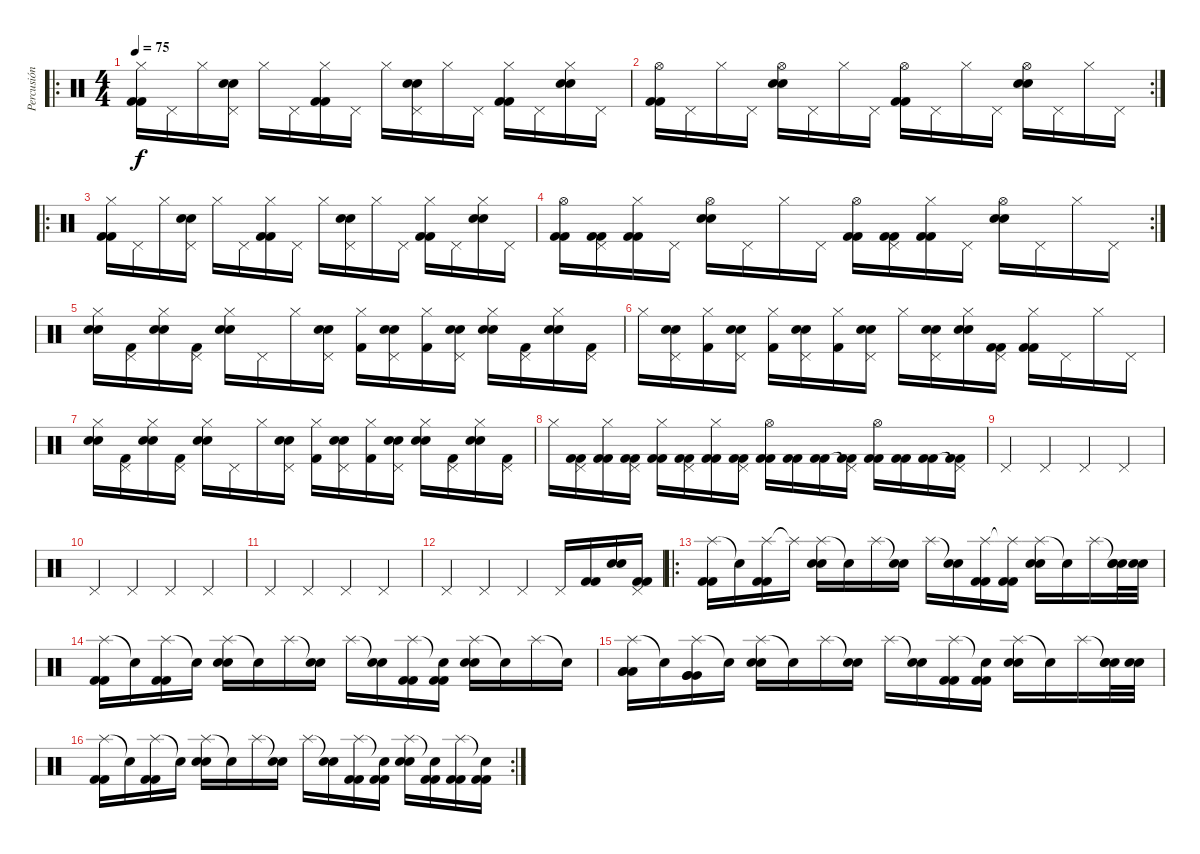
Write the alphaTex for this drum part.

\track ("Percusión" "Percusión") {instrument percussion}
\staff {score}
\articulation defaults
\ro
\ts (4 4)
\tempo 75
\clef neutral
\ks c
("Hi-Hat (closed)" "Kick (hit) 2" "Kick (hit) 2").16{dy f} "Pedal Hi-Hat (hit)".16 "Hi-Hat (closed)".16 ("Pedal Hi-Hat (hit)" "Electric Snare (hit)" "Electric Snare (hit)").16 "Hi-Hat (closed)".16 "Pedal Hi-Hat (hit)".16 ("Hi-Hat (closed)" "Kick (hit) 2" "Kick (hit) 2").16 "Pedal Hi-Hat (hit)".16 "Hi-Hat (closed)".16 ("Pedal Hi-Hat (hit)" "Electric Snare (hit)" "Electric Snare (hit)").16 "Hi-Hat (closed)".16 "Pedal Hi-Hat (hit)".16 ("Hi-Hat (closed)" "Kick (hit) 2" "Kick (hit) 2").16 "Pedal Hi-Hat (hit)".16 ("Hi-Hat (closed)" "Electric Snare (hit)" "Electric Snare (hit)").16 "Pedal Hi-Hat (hit)".16 |
\rc 2
("Hi-Hat (open)" "Kick (hit) 2" "Kick (hit) 2").16 "Pedal Hi-Hat (hit)".16 "Hi-Hat (closed)".16 "Pedal Hi-Hat (hit)".16 ("Hi-Hat (open)" "Electric Snare (hit)" "Electric Snare (hit)").16 "Pedal Hi-Hat (hit)".16 "Hi-Hat (closed)".16 "Pedal Hi-Hat (hit)".16 ("Hi-Hat (open)" "Kick (hit) 2" "Kick (hit) 2").16 "Pedal Hi-Hat (hit)".16 "Hi-Hat (closed)".16 "Pedal Hi-Hat (hit)".16 ("Hi-Hat (open)" "Electric Snare (hit)" "Electric Snare (hit)").16 "Pedal Hi-Hat (hit)".16 "Hi-Hat (closed)".16 "Pedal Hi-Hat (hit)".16 |
\ro
("Hi-Hat (closed)" "Kick (hit) 2" "Kick (hit) 2").16 "Pedal Hi-Hat (hit)".16 "Hi-Hat (closed)".16 ("Pedal Hi-Hat (hit)" "Electric Snare (hit)" "Electric Snare (hit)").16 "Hi-Hat (closed)".16 "Pedal Hi-Hat (hit)".16 ("Hi-Hat (closed)" "Kick (hit) 2" "Kick (hit) 2").16 "Pedal Hi-Hat (hit)".16 "Hi-Hat (closed)".16 ("Pedal Hi-Hat (hit)" "Electric Snare (hit)" "Electric Snare (hit)").16 "Hi-Hat (closed)".16 "Pedal Hi-Hat (hit)".16 ("Hi-Hat (closed)" "Kick (hit) 2" "Kick (hit) 2").16 "Pedal Hi-Hat (hit)".16 ("Hi-Hat (closed)" "Electric Snare (hit)" "Electric Snare (hit)").16 "Pedal Hi-Hat (hit)".16 |
\rc 2
("Hi-Hat (open)" "Kick (hit) 2" "Kick (hit) 2").16 ("Pedal Hi-Hat (hit)" "Kick (hit) 2" "Kick (hit) 2").16 ("Hi-Hat (closed)" "Kick (hit) 2" "Kick (hit) 2").16 "Pedal Hi-Hat (hit)".16 ("Hi-Hat (open)" "Electric Snare (hit)" "Electric Snare (hit)").16 "Pedal Hi-Hat (hit)".16 "Hi-Hat (closed)".16 "Pedal Hi-Hat (hit)".16 ("Hi-Hat (open)" "Kick (hit) 2" "Kick (hit) 2").16 ("Pedal Hi-Hat (hit)" "Kick (hit) 2" "Kick (hit) 2").16 ("Hi-Hat (closed)" "Kick (hit) 2" "Kick (hit) 2").16 "Pedal Hi-Hat (hit)".16 ("Hi-Hat (open)" "Electric Snare (hit)" "Electric Snare (hit)").16 "Pedal Hi-Hat (hit)".16 "Hi-Hat (closed)".16 "Pedal Hi-Hat (hit)".16 |
("Hi-Hat (closed)" "Electric Snare (hit)" "Electric Snare (hit)").16 ("Pedal Hi-Hat (hit)" "Kick (hit) 2").16 ("Hi-Hat (closed)" "Electric Snare (hit)" "Electric Snare (hit)").16 ("Pedal Hi-Hat (hit)" "Kick (hit) 2").16 ("Hi-Hat (closed)" "Electric Snare (hit)" "Electric Snare (hit)").16 "Pedal Hi-Hat (hit)".16 "Hi-Hat (closed)".16 ("Pedal Hi-Hat (hit)" "Electric Snare (hit)" "Electric Snare (hit)").16 ("Hi-Hat (closed)" "Kick (hit) 2").16 ("Pedal Hi-Hat (hit)" "Electric Snare (hit)" "Electric Snare (hit)").16 ("Hi-Hat (closed)" "Kick (hit) 2").16 ("Pedal Hi-Hat (hit)" "Electric Snare (hit)" "Electric Snare (hit)").16 ("Hi-Hat (closed)" "Electric Snare (hit)" "Electric Snare (hit)").16 ("Pedal Hi-Hat (hit)" "Kick (hit) 2").16 ("Hi-Hat (closed)" "Electric Snare (hit)" "Electric Snare (hit)").16 ("Pedal Hi-Hat (hit)" "Kick (hit) 2").16 |
"Hi-Hat (closed)".16 ("Pedal Hi-Hat (hit)" "Electric Snare (hit)" "Electric Snare (hit)").16 ("Hi-Hat (closed)" "Kick (hit) 2").16 ("Pedal Hi-Hat (hit)" "Electric Snare (hit)" "Electric Snare (hit)").16 ("Hi-Hat (closed)" "Kick (hit) 2").16 ("Pedal Hi-Hat (hit)" "Electric Snare (hit)" "Electric Snare (hit)").16 ("Hi-Hat (closed)" "Kick (hit) 2").16 ("Pedal Hi-Hat (hit)" "Electric Snare (hit)" "Electric Snare (hit)").16 "Hi-Hat (closed)".16 ("Pedal Hi-Hat (hit)" "Electric Snare (hit)" "Electric Snare (hit)").16 ("Hi-Hat (closed)" "Electric Snare (hit)" "Electric Snare (hit)").16 ("Pedal Hi-Hat (hit)" "Kick (hit) 2" "Kick (hit) 2").16 ("Hi-Hat (closed)" "Kick (hit) 2" "Kick (hit) 2").16 "Pedal Hi-Hat (hit)".16 "Hi-Hat (closed)".16 "Pedal Hi-Hat (hit)".16 |
("Hi-Hat (closed)" "Electric Snare (hit)" "Electric Snare (hit)").16 ("Pedal Hi-Hat (hit)" "Kick (hit) 2").16 ("Hi-Hat (closed)" "Electric Snare (hit)" "Electric Snare (hit)").16 ("Pedal Hi-Hat (hit)" "Kick (hit) 2").16 ("Hi-Hat (closed)" "Electric Snare (hit)" "Electric Snare (hit)").16 "Pedal Hi-Hat (hit)".16 "Hi-Hat (closed)".16 ("Pedal Hi-Hat (hit)" "Electric Snare (hit)" "Electric Snare (hit)").16 ("Hi-Hat (closed)" "Kick (hit) 2").16 ("Pedal Hi-Hat (hit)" "Electric Snare (hit)" "Electric Snare (hit)").16 ("Hi-Hat (closed)" "Kick (hit) 2").16 ("Pedal Hi-Hat (hit)" "Electric Snare (hit)" "Electric Snare (hit)").16 ("Hi-Hat (closed)" "Electric Snare (hit)" "Electric Snare (hit)").16 ("Pedal Hi-Hat (hit)" "Kick (hit) 2").16 ("Hi-Hat (closed)" "Electric Snare (hit)" "Electric Snare (hit)").16 ("Pedal Hi-Hat (hit)" "Kick (hit) 2").16 |
"Hi-Hat (closed)".16 ("Pedal Hi-Hat (hit)" "Kick (hit) 2" "Kick (hit) 2").16 ("Hi-Hat (closed)" "Kick (hit) 2" "Kick (hit) 2").16 ("Pedal Hi-Hat (hit)" "Kick (hit) 2" "Kick (hit) 2").16 ("Hi-Hat (closed)" "Kick (hit) 2" "Kick (hit) 2").16 ("Pedal Hi-Hat (hit)" "Kick (hit) 2" "Kick (hit) 2").16 ("Hi-Hat (closed)" "Kick (hit) 2" "Kick (hit) 2").16 ("Pedal Hi-Hat (hit)" "Kick (hit) 2" "Kick (hit) 2").16 ("Hi-Hat (open)" "Kick (hit) 2" "Kick (hit) 2").16 ("Kick (hit) 2" "Kick (hit) 2").16 ("Kick (hit) 2" "Kick (hit) 2").16 ("Pedal Hi-Hat (hit)"{t} "Kick (hit) 2" "Kick (hit) 2").16 ("Hi-Hat (open)" "Kick (hit) 2" "Kick (hit) 2").16 ("Kick (hit) 2" "Kick (hit) 2").16 ("Kick (hit) 2" "Kick (hit) 2").16 ("Pedal Hi-Hat (hit)"{t} "Kick (hit) 2" "Kick (hit) 2").16 |
"Pedal Hi-Hat (hit)".4 "Pedal Hi-Hat (hit)".4 "Pedal Hi-Hat (hit)".4 "Pedal Hi-Hat (hit)".4 |
"Pedal Hi-Hat (hit)".4 "Pedal Hi-Hat (hit)".4 "Pedal Hi-Hat (hit)".4 "Pedal Hi-Hat (hit)".4 |
"Pedal Hi-Hat (hit)".4 "Pedal Hi-Hat (hit)".4 "Pedal Hi-Hat (hit)".4 "Pedal Hi-Hat (hit)".4 |
"Pedal Hi-Hat (hit)".4 "Pedal Hi-Hat (hit)".4 "Pedal Hi-Hat (hit)".4 "Pedal Hi-Hat (hit)".16 ("Kick (hit) 2" "Kick (hit) 2").16 ("Electric Snare (hit)" "Electric Snare (hit)").16 ("Pedal Hi-Hat (hit)" "Kick (hit) 2" "Kick (hit) 2").16 |
\ro
("Splash (hit)" "Kick (hit) 2" "Kick (hit) 2").16 "Snare (hit)"{t}.16 ("Splash (hit)" "Kick (hit) 2" "Kick (hit) 2").16 "Splash (hit)"{t}.16 ("Splash (hit)" "Electric Snare (hit)" "Electric Snare (hit)").16 "Snare (hit)"{t}.16 "Splash (hit)".16 ("Snare (hit)"{t} "Electric Snare (hit)").16 "Splash (hit)".16 ("Snare (hit)"{t} "Electric Snare (hit)").16 ("Splash (hit)" "Kick (hit) 2" "Kick (hit) 2").16 ("Splash (hit)"{t} "Kick (hit) 2" "Kick (hit) 2").16 ("Splash (hit)" "Electric Snare (hit)" "Electric Snare (hit)").16 "Snare (hit)"{t}.16 "Splash (hit)".16 ("Snare (hit)"{t} "Electric Snare (hit)" "Electric Snare (hit)").32 ("Electric Snare (hit)" "Electric Snare (hit)").32 |
("Splash (hit)" "Kick (hit) 2" "Kick (hit) 2").16 "Snare (hit)"{t}.16 ("Splash (hit)" "Kick (hit) 2" "Kick (hit) 2").16 "Snare (hit)"{t}.16 ("Splash (hit)" "Electric Snare (hit)" "Electric Snare (hit)").16 "Snare (hit)"{t}.16 "Splash (hit)".16 ("Snare (hit)"{t} "Electric Snare (hit)").16 "Splash (hit)".16 ("Snare (hit)"{t} "Electric Snare (hit)").16 ("Splash (hit)" "Kick (hit) 2" "Kick (hit) 2").16 ("Snare (hit)"{t} "Kick (hit) 2" "Kick (hit) 2").16 ("Splash (hit)" "Electric Snare (hit)" "Electric Snare (hit)").16 "Snare (hit)"{t}.16 "Splash (hit)".16 "Snare (hit)"{t}.16 |
("Splash (hit)" "Low Tom (hit)" "Low Tom (hit)" "Low Tom (hit)").16 "Snare (hit)"{t}.16 ("Splash (hit)" "Very Low Tom (hit)" "Very Low Tom (hit)" "Very Low Tom (hit)").16 "Snare (hit)"{t}.16 ("Splash (hit)" "Electric Snare (hit)" "Electric Snare (hit)").16 "Snare (hit)"{t}.16 "Splash (hit)".16 ("Snare (hit)"{t} "Electric Snare (hit)").16 "Splash (hit)".16 ("Snare (hit)"{t} "Electric Snare (hit)").16 ("Splash (hit)" "Kick (hit) 2" "Kick (hit) 2").16 ("Snare (hit)"{t} "Kick (hit) 2" "Kick (hit) 2").16 ("Splash (hit)" "Electric Snare (hit)" "Electric Snare (hit)").16 "Snare (hit)"{t}.16 "Splash (hit)".16 ("Snare (hit)"{t} "Electric Snare (hit)" "Electric Snare (hit)").32 ("Electric Snare (hit)" "Electric Snare (hit)").32 |
\rc 2
("Splash (hit)" "Kick (hit) 2" "Kick (hit) 2").16 "Snare (hit)"{t}.16 ("Splash (hit)" "Kick (hit) 2" "Kick (hit) 2").16 "Snare (hit)"{t}.16 ("Splash (hit)" "Electric Snare (hit)" "Electric Snare (hit)").16 "Snare (hit)"{t}.16 "Splash (hit)".16 ("Snare (hit)"{t} "Electric Snare (hit)").16 "Splash (hit)".16 ("Snare (hit)"{t} "Electric Snare (hit)").16 ("Splash (hit)" "Kick (hit) 2" "Kick (hit) 2").16 ("Snare (hit)"{t} "Kick (hit) 2" "Kick (hit) 2").16 ("Splash (hit)" "Electric Snare (hit)" "Electric Snare (hit)").16 ("Snare (hit)"{t} "Kick (hit) 2" "Kick (hit) 2").16 ("Splash (hit)" "Kick (hit) 2" "Kick (hit) 2").16 ("Snare (hit)"{t} "Kick (hit) 2" "Kick (hit) 2").16
